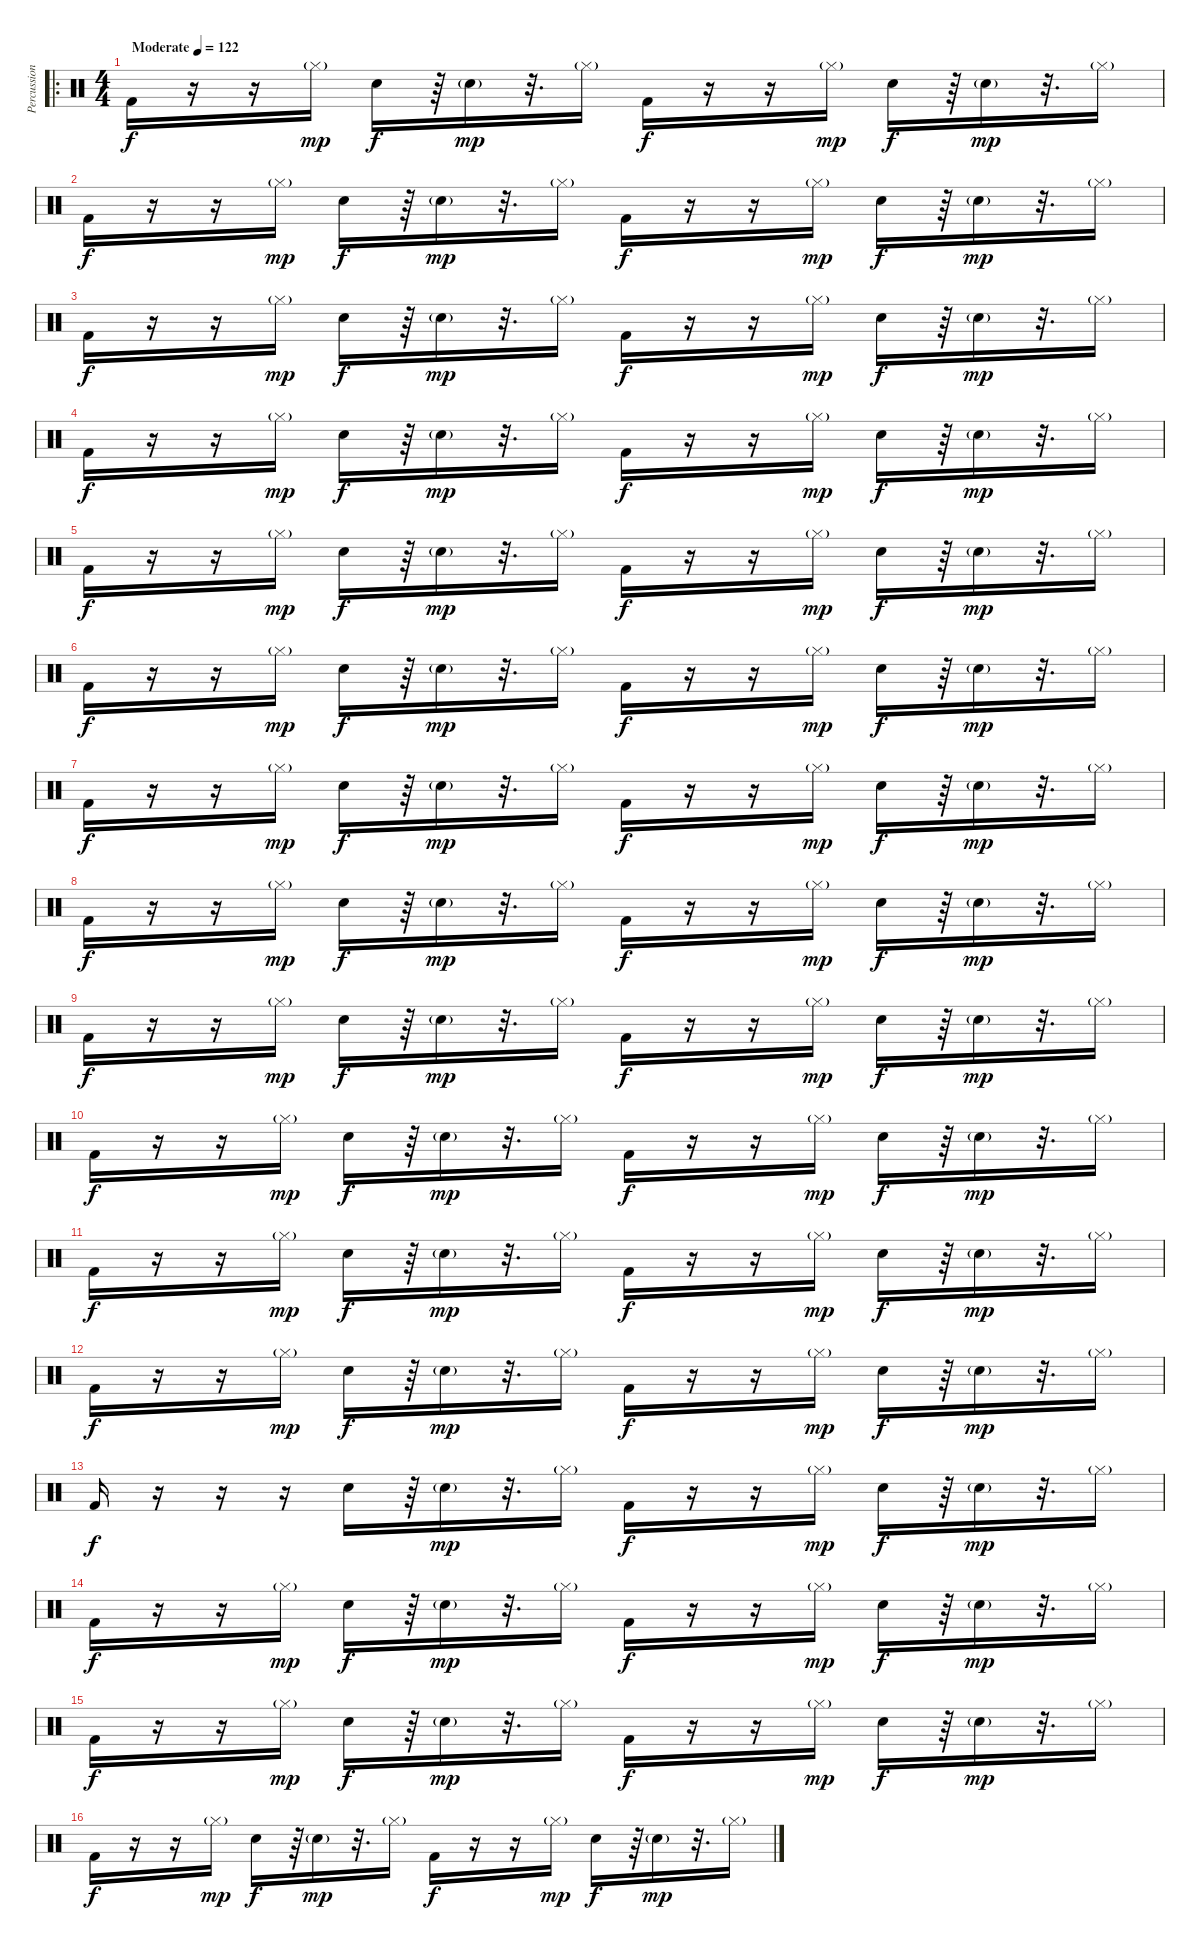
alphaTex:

\track ("Percussion" "Percussion") {instrument percussion}
\staff {score}
\articulation defaults
\ro
\ts (4 4)
\tempo (122 "Moderate")
\clef neutral
\ks c "Kick (hit) 2".16{dy f}
r.16 r.16 "Hi-Hat (closed)"{g}.16{dy mp} "Electric Snare (hit)".16{dy f} r.64 "Electric Snare (hit)"{g}.16{dy mp} r.32{d} "Hi-Hat (closed)"{g}.16 "Kick (hit) 2".16{dy f} r.16 r.16 "Hi-Hat (closed)"{g}.16{dy mp} "Electric Snare (hit)".16{dy f} r.64 "Electric Snare (hit)"{g}.16{dy mp} r.32{d} "Hi-Hat (closed)"{g}.16 |
"Kick (hit) 2".16{dy f} r.16 r.16 "Hi-Hat (closed)"{g}.16{dy mp} "Electric Snare (hit)".16{dy f} r.64 "Electric Snare (hit)"{g}.16{dy mp} r.32{d} "Hi-Hat (closed)"{g}.16 "Kick (hit) 2".16{dy f} r.16 r.16 "Hi-Hat (closed)"{g}.16{dy mp} "Electric Snare (hit)".16{dy f} r.64 "Electric Snare (hit)"{g}.16{dy mp} r.32{d} "Hi-Hat (closed)"{g}.16 |
"Kick (hit) 2".16{dy f} r.16 r.16 "Hi-Hat (closed)"{g}.16{dy mp} "Electric Snare (hit)".16{dy f} r.64 "Electric Snare (hit)"{g}.16{dy mp} r.32{d} "Hi-Hat (closed)"{g}.16 "Kick (hit) 2".16{dy f} r.16 r.16 "Hi-Hat (closed)"{g}.16{dy mp} "Electric Snare (hit)".16{dy f} r.64 "Electric Snare (hit)"{g}.16{dy mp} r.32{d} "Hi-Hat (closed)"{g}.16 |
"Kick (hit) 2".16{dy f} r.16 r.16 "Hi-Hat (closed)"{g}.16{dy mp} "Electric Snare (hit)".16{dy f} r.64 "Electric Snare (hit)"{g}.16{dy mp} r.32{d} "Hi-Hat (closed)"{g}.16 "Kick (hit) 2".16{dy f} r.16 r.16 "Hi-Hat (closed)"{g}.16{dy mp} "Electric Snare (hit)".16{dy f} r.64 "Electric Snare (hit)"{g}.16{dy mp} r.32{d} "Hi-Hat (closed)"{g}.16 |
"Kick (hit) 2".16{dy f} r.16 r.16 "Hi-Hat (closed)"{g}.16{dy mp} "Electric Snare (hit)".16{dy f} r.64 "Electric Snare (hit)"{g}.16{dy mp} r.32{d} "Hi-Hat (closed)"{g}.16 "Kick (hit) 2".16{dy f} r.16 r.16 "Hi-Hat (closed)"{g}.16{dy mp} "Electric Snare (hit)".16{dy f} r.64 "Electric Snare (hit)"{g}.16{dy mp} r.32{d} "Hi-Hat (closed)"{g}.16 |
"Kick (hit) 2".16{dy f} r.16 r.16 "Hi-Hat (closed)"{g}.16{dy mp} "Electric Snare (hit)".16{dy f} r.64 "Electric Snare (hit)"{g}.16{dy mp} r.32{d} "Hi-Hat (closed)"{g}.16 "Kick (hit) 2".16{dy f} r.16 r.16 "Hi-Hat (closed)"{g}.16{dy mp} "Electric Snare (hit)".16{dy f} r.64 "Electric Snare (hit)"{g}.16{dy mp} r.32{d} "Hi-Hat (closed)"{g}.16 |
"Kick (hit) 2".16{dy f} r.16 r.16 "Hi-Hat (closed)"{g}.16{dy mp} "Electric Snare (hit)".16{dy f} r.64 "Electric Snare (hit)"{g}.16{dy mp} r.32{d} "Hi-Hat (closed)"{g}.16 "Kick (hit) 2".16{dy f} r.16 r.16 "Hi-Hat (closed)"{g}.16{dy mp} "Electric Snare (hit)".16{dy f} r.64 "Electric Snare (hit)"{g}.16{dy mp} r.32{d} "Hi-Hat (closed)"{g}.16 |
"Kick (hit) 2".16{dy f} r.16 r.16 "Hi-Hat (closed)"{g}.16{dy mp} "Electric Snare (hit)".16{dy f} r.64 "Electric Snare (hit)"{g}.16{dy mp} r.32{d} "Hi-Hat (closed)"{g}.16 "Kick (hit) 2".16{dy f} r.16 r.16 "Hi-Hat (closed)"{g}.16{dy mp} "Electric Snare (hit)".16{dy f} r.64 "Electric Snare (hit)"{g}.16{dy mp} r.32{d} "Hi-Hat (closed)"{g}.16 |
"Kick (hit) 2".16{dy f} r.16 r.16 "Hi-Hat (closed)"{g}.16{dy mp} "Electric Snare (hit)".16{dy f} r.64 "Electric Snare (hit)"{g}.16{dy mp} r.32{d} "Hi-Hat (closed)"{g}.16 "Kick (hit) 2".16{dy f} r.16 r.16 "Hi-Hat (closed)"{g}.16{dy mp} "Electric Snare (hit)".16{dy f} r.64 "Electric Snare (hit)"{g}.16{dy mp} r.32{d} "Hi-Hat (closed)"{g}.16 |
"Kick (hit) 2".16{dy f} r.16 r.16 "Hi-Hat (closed)"{g}.16{dy mp} "Electric Snare (hit)".16{dy f} r.64 "Electric Snare (hit)"{g}.16{dy mp} r.32{d} "Hi-Hat (closed)"{g}.16 "Kick (hit) 2".16{dy f} r.16 r.16 "Hi-Hat (closed)"{g}.16{dy mp} "Electric Snare (hit)".16{dy f} r.64 "Electric Snare (hit)"{g}.16{dy mp} r.32{d} "Hi-Hat (closed)"{g}.16 |
"Kick (hit) 2".16{dy f} r.16 r.16 "Hi-Hat (closed)"{g}.16{dy mp} "Electric Snare (hit)".16{dy f} r.64 "Electric Snare (hit)"{g}.16{dy mp} r.32{d} "Hi-Hat (closed)"{g}.16 "Kick (hit) 2".16{dy f} r.16 r.16 "Hi-Hat (closed)"{g}.16{dy mp} "Electric Snare (hit)".16{dy f} r.64 "Electric Snare (hit)"{g}.16{dy mp} r.32{d} "Hi-Hat (closed)"{g}.16 |
"Kick (hit) 2".16{dy f} r.16 r.16 "Hi-Hat (closed)"{g}.16{dy mp} "Electric Snare (hit)".16{dy f} r.64 "Electric Snare (hit)"{g}.16{dy mp} r.32{d} "Hi-Hat (closed)"{g}.16 "Kick (hit) 2".16{dy f} r.16 r.16 "Hi-Hat (closed)"{g}.16{dy mp} "Electric Snare (hit)".16{dy f} r.64 "Electric Snare (hit)"{g}.16{dy mp} r.32{d} "Hi-Hat (closed)"{g}.16 |
"Kick (hit) 2".16{dy f} r.16 r.16 r.16 "Electric Snare (hit)".16 r.64 "Electric Snare (hit)"{g}.16{dy mp} r.32{d} "Hi-Hat (closed)"{g}.16 "Kick (hit) 2".16{dy f} r.16 r.16 "Hi-Hat (closed)"{g}.16{dy mp} "Electric Snare (hit)".16{dy f} r.64 "Electric Snare (hit)"{g}.16{dy mp} r.32{d} "Hi-Hat (closed)"{g}.16 |
"Kick (hit) 2".16{dy f} r.16 r.16 "Hi-Hat (closed)"{g}.16{dy mp} "Electric Snare (hit)".16{dy f} r.64 "Electric Snare (hit)"{g}.16{dy mp} r.32{d} "Hi-Hat (closed)"{g}.16 "Kick (hit) 2".16{dy f} r.16 r.16 "Hi-Hat (closed)"{g}.16{dy mp} "Electric Snare (hit)".16{dy f} r.64 "Electric Snare (hit)"{g}.16{dy mp} r.32{d} "Hi-Hat (closed)"{g}.16 |
"Kick (hit) 2".16{dy f} r.16 r.16 "Hi-Hat (closed)"{g}.16{dy mp} "Electric Snare (hit)".16{dy f} r.64 "Electric Snare (hit)"{g}.16{dy mp} r.32{d} "Hi-Hat (closed)"{g}.16 "Kick (hit) 2".16{dy f} r.16 r.16 "Hi-Hat (closed)"{g}.16{dy mp} "Electric Snare (hit)".16{dy f} r.64 "Electric Snare (hit)"{g}.16{dy mp} r.32{d} "Hi-Hat (closed)"{g}.16 |
"Kick (hit) 2".16{dy f} r.16 r.16 "Hi-Hat (closed)"{g}.16{dy mp} "Electric Snare (hit)".16{dy f} r.64 "Electric Snare (hit)"{g}.16{dy mp} r.32{d} "Hi-Hat (closed)"{g}.16 "Kick (hit) 2".16{dy f} r.16 r.16 "Hi-Hat (closed)"{g}.16{dy mp} "Electric Snare (hit)".16{dy f} r.64 "Electric Snare (hit)"{g}.16{dy mp} r.32{d} "Hi-Hat (closed)"{g}.16
